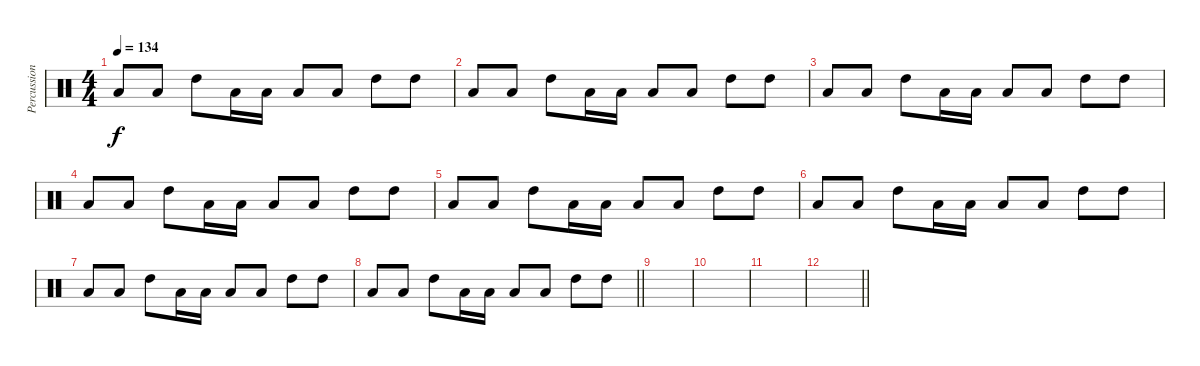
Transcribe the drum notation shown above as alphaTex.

\track ("Percussion" "Percussion") {instrument percussion}
\staff {score}
\articulation defaults
\ts (4 4)
\tempo 134
\clef neutral
\ks c "Low Tom (hit)".8{dy f} "Low Tom (hit)".8 "High Tom (hit)".8 "Low Tom (hit)".16 "Low Tom (hit)".16 "Low Tom (hit)".8 "Low Tom (hit)".8 "High Tom (hit)".8 "High Tom (hit)".8
|
"Low Tom (hit)".8 "Low Tom (hit)".8 "High Tom (hit)".8 "Low Tom (hit)".16 "Low Tom (hit)".16 "Low Tom (hit)".8 "Low Tom (hit)".8 "High Tom (hit)".8 "High Tom (hit)".8 |
"Low Tom (hit)".8 "Low Tom (hit)".8 "High Tom (hit)".8 "Low Tom (hit)".16 "Low Tom (hit)".16 "Low Tom (hit)".8 "Low Tom (hit)".8 "High Tom (hit)".8 "High Tom (hit)".8 |
"Low Tom (hit)".8 "Low Tom (hit)".8 "High Tom (hit)".8 "Low Tom (hit)".16 "Low Tom (hit)".16 "Low Tom (hit)".8 "Low Tom (hit)".8 "High Tom (hit)".8 "High Tom (hit)".8 |
"Low Tom (hit)".8 "Low Tom (hit)".8 "High Tom (hit)".8 "Low Tom (hit)".16 "Low Tom (hit)".16 "Low Tom (hit)".8 "Low Tom (hit)".8 "High Tom (hit)".8 "High Tom (hit)".8 |
"Low Tom (hit)".8 "Low Tom (hit)".8 "High Tom (hit)".8 "Low Tom (hit)".16 "Low Tom (hit)".16 "Low Tom (hit)".8 "Low Tom (hit)".8 "High Tom (hit)".8 "High Tom (hit)".8 |
"Low Tom (hit)".8 "Low Tom (hit)".8 "High Tom (hit)".8 "Low Tom (hit)".16 "Low Tom (hit)".16 "Low Tom (hit)".8 "Low Tom (hit)".8 "High Tom (hit)".8 "High Tom (hit)".8 |
\barLineRight lightlight "Low Tom (hit)".8 "Low Tom (hit)".8 "High Tom (hit)".8 "Low Tom (hit)".16 "Low Tom (hit)".16 "Low Tom (hit)".8 "Low Tom (hit)".8 "High Tom (hit)".8 "High Tom (hit)".8
|
|
|
|
\barLineRight lightlight
